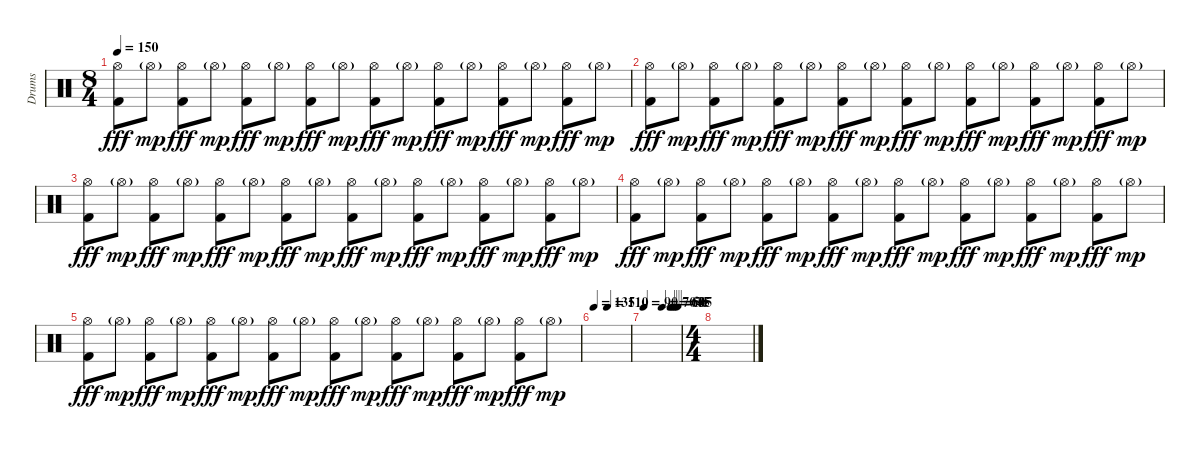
\track ("Drums" "Drums") {instrument percussion}
\staff {score}
\articulation defaults
\ts (8 4)
\tempo 150
\clef neutral
\ks c
("Hi-Hat (open)" "Kick (hit) 2").8{dy fff} "Hi-Hat (open)"{g}.8{dy mp} ("Hi-Hat (open)" "Kick (hit) 2").8{dy fff} "Hi-Hat (open)"{g}.8{dy mp} ("Hi-Hat (open)" "Kick (hit) 2").8{dy fff} "Hi-Hat (open)"{g}.8{dy mp} ("Hi-Hat (open)" "Kick (hit) 2").8{dy fff} "Hi-Hat (open)"{g}.8{dy mp} ("Hi-Hat (open)" "Kick (hit) 2").8{dy fff} "Hi-Hat (open)"{g}.8{dy mp} ("Hi-Hat (open)" "Kick (hit) 2").8{dy fff} "Hi-Hat (open)"{g}.8{dy mp} ("Hi-Hat (open)" "Kick (hit) 2").8{dy fff} "Hi-Hat (open)"{g}.8{dy mp} ("Hi-Hat (open)" "Kick (hit) 2").8{dy fff} "Hi-Hat (open)"{g}.8{dy mp} |
("Hi-Hat (open)" "Kick (hit) 2").8{dy fff volume 5} "Hi-Hat (open)"{g}.8{dy mp} ("Hi-Hat (open)" "Kick (hit) 2").8{dy fff} "Hi-Hat (open)"{g}.8{dy mp} ("Hi-Hat (open)" "Kick (hit) 2").8{dy fff} "Hi-Hat (open)"{g}.8{dy mp} ("Hi-Hat (open)" "Kick (hit) 2").8{dy fff} "Hi-Hat (open)"{g}.8{dy mp} ("Hi-Hat (open)" "Kick (hit) 2").8{dy fff} "Hi-Hat (open)"{g}.8{dy mp} ("Hi-Hat (open)" "Kick (hit) 2").8{dy fff} "Hi-Hat (open)"{g}.8{dy mp} ("Hi-Hat (open)" "Kick (hit) 2").8{dy fff} "Hi-Hat (open)"{g}.8{dy mp} ("Hi-Hat (open)" "Kick (hit) 2").8{dy fff} "Hi-Hat (open)"{g}.8{dy mp} |
("Hi-Hat (open)" "Kick (hit) 2").8{dy fff} "Hi-Hat (open)"{g}.8{dy mp} ("Hi-Hat (open)" "Kick (hit) 2").8{dy fff} "Hi-Hat (open)"{g}.8{dy mp} ("Hi-Hat (open)" "Kick (hit) 2").8{dy fff} "Hi-Hat (open)"{g}.8{dy mp} ("Hi-Hat (open)" "Kick (hit) 2").8{dy fff} "Hi-Hat (open)"{g}.8{dy mp} ("Hi-Hat (open)" "Kick (hit) 2").8{dy fff} "Hi-Hat (open)"{g}.8{dy mp} ("Hi-Hat (open)" "Kick (hit) 2").8{dy fff} "Hi-Hat (open)"{g}.8{dy mp} ("Hi-Hat (open)" "Kick (hit) 2").8{dy fff} "Hi-Hat (open)"{g}.8{dy mp} ("Hi-Hat (open)" "Kick (hit) 2").8{dy fff} "Hi-Hat (open)"{g}.8{dy mp} |
("Hi-Hat (open)" "Kick (hit) 2").8{dy fff volume 3} "Hi-Hat (open)"{g}.8{dy mp} ("Hi-Hat (open)" "Kick (hit) 2").8{dy fff} "Hi-Hat (open)"{g}.8{dy mp} ("Hi-Hat (open)" "Kick (hit) 2").8{dy fff} "Hi-Hat (open)"{g}.8{dy mp} ("Hi-Hat (open)" "Kick (hit) 2").8{dy fff} "Hi-Hat (open)"{g}.8{dy mp} ("Hi-Hat (open)" "Kick (hit) 2").8{dy fff} "Hi-Hat (open)"{g}.8{dy mp} ("Hi-Hat (open)" "Kick (hit) 2").8{dy fff} "Hi-Hat (open)"{g}.8{dy mp} ("Hi-Hat (open)" "Kick (hit) 2").8{dy fff} "Hi-Hat (open)"{g}.8{dy mp} ("Hi-Hat (open)" "Kick (hit) 2").8{dy fff} "Hi-Hat (open)"{g}.8{dy mp} |
("Hi-Hat (open)" "Kick (hit) 2").8{dy fff} "Hi-Hat (open)"{g}.8{dy mp} ("Hi-Hat (open)" "Kick (hit) 2").8{dy fff} "Hi-Hat (open)"{g}.8{dy mp} ("Hi-Hat (open)" "Kick (hit) 2").8{dy fff} "Hi-Hat (open)"{g}.8{dy mp} ("Hi-Hat (open)" "Kick (hit) 2").8{dy fff} "Hi-Hat (open)"{g}.8{dy mp} ("Hi-Hat (open)" "Kick (hit) 2").8{dy fff} "Hi-Hat (open)"{g}.8{dy mp} ("Hi-Hat (open)" "Kick (hit) 2").8{dy fff} "Hi-Hat (open)"{g}.8{dy mp} ("Hi-Hat (open)" "Kick (hit) 2").8{dy fff} "Hi-Hat (open)"{g}.8{dy mp} ("Hi-Hat (open)" "Kick (hit) 2").8{dy fff} "Hi-Hat (open)"{g}.8{dy mp} |
\tempo 135
\tempo (110 0.375)
|
\tempo 90
\tempo (70 0.5)
\tempo (60 0.75)
\tempo (50 0.8125)
\tempo (45 0.875)
\tempo (35 0.9375)
|
\ts (4 4)
